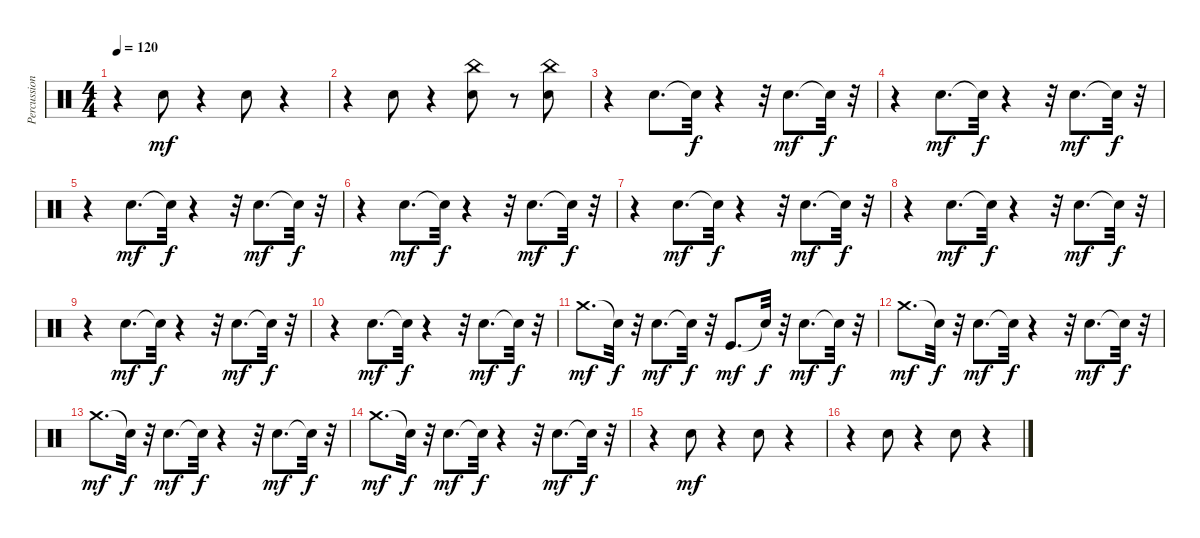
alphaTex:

\track ("Percussions" "Percussion") {instrument percussion}
\staff {score}
\articulation defaults
\ts (4 4)
\tempo 120
\clef neutral
\ks c
r.4{dy mf} "Electric Snare (hit)".8 r.4 "Electric Snare (hit)".8 r.4 |
r.4 "Electric Snare (hit)".8 r.4 ("Electric Snare (hit)" "China (hit)").8 r.8 ("Electric Snare (hit)" "China (hit)").8 |
r.4 "Electric Snare (hit)".8{d} "Snare (hit)"{t}.32{dy f} r.4 r.32 "Snare (hit) 2".8{d dy mf} "Snare (hit)"{t}.32{dy f} r.32 |
r.4 "Electric Snare (hit)".8{d dy mf} "Snare (hit)"{t}.32{dy f} r.4 r.32 "Snare (hit) 2".8{d dy mf} "Snare (hit)"{t}.32{dy f} r.32 |
r.4 "Electric Snare (hit)".8{d dy mf} "Snare (hit)"{t}.32{dy f} r.4 r.32 "Snare (hit) 2".8{d dy mf} "Snare (hit)"{t}.32{dy f} r.32 |
r.4 "Electric Snare (hit)".8{d dy mf} "Snare (hit)"{t}.32{dy f} r.4 r.32 "Snare (hit) 2".8{d dy mf} "Snare (hit)"{t}.32{dy f} r.32 |
r.4 "Electric Snare (hit)".8{d dy mf} "Snare (hit)"{t}.32{dy f} r.4 r.32 "Snare (hit) 2".8{d dy mf} "Snare (hit)"{t}.32{dy f} r.32 |
r.4 "Electric Snare (hit)".8{d dy mf} "Snare (hit)"{t}.32{dy f} r.4 r.32 "Snare (hit) 2".8{d dy mf} "Snare (hit)"{t}.32{dy f} r.32 |
r.4 "Electric Snare (hit)".8{d dy mf} "Snare (hit)"{t}.32{dy f} r.4 r.32 "Snare (hit) 2".8{d dy mf} "Snare (hit)"{t}.32{dy f} r.32 |
r.4 "Electric Snare (hit)".8{d dy mf} "Snare (hit)"{t}.32{dy f} r.4 r.32 "Snare (hit) 2".8{d dy mf} "Snare (hit)"{t}.32{dy f} r.32 |
"Crash medium (hit)".8{d dy mf} "Snare (hit)"{t}.32{dy f} r.32 "Electric Snare (hit)".8{d dy mf} "Snare (hit)"{t}.32{dy f} r.32 "Kick (hit)".8{d dy mf} "Snare (hit)"{t}.32{dy f} r.32 "Electric Snare (hit)".8{d dy mf} "Snare (hit)"{t}.32{dy f} r.32 |
"Crash medium (hit)".8{d dy mf} "Snare (hit)"{t}.32{dy f} r.32 "Electric Snare (hit)".8{d dy mf} "Snare (hit)"{t}.32{dy f} r.4 r.32 "Electric Snare (hit)".8{d dy mf} "Snare (hit)"{t}.32{dy f} r.32 |
"Crash medium (hit)".8{d dy mf} "Snare (hit)"{t}.32{dy f} r.32 "Electric Snare (hit)".8{d dy mf} "Snare (hit)"{t}.32{dy f} r.4 r.32 "Electric Snare (hit)".8{d dy mf} "Snare (hit)"{t}.32{dy f} r.32 |
"Crash medium (hit)".8{d dy mf} "Snare (hit)"{t}.32{dy f} r.32 "Electric Snare (hit)".8{d dy mf} "Snare (hit)"{t}.32{dy f} r.4 r.32 "Electric Snare (hit)".8{d dy mf} "Snare (hit)"{t}.32{dy f} r.32 |
r.4 "Electric Snare (hit)".8{dy mf} r.4 "Electric Snare (hit)".8 r.4 |
r.4 "Electric Snare (hit)".8 r.4 "Electric Snare (hit)".8 r.4
